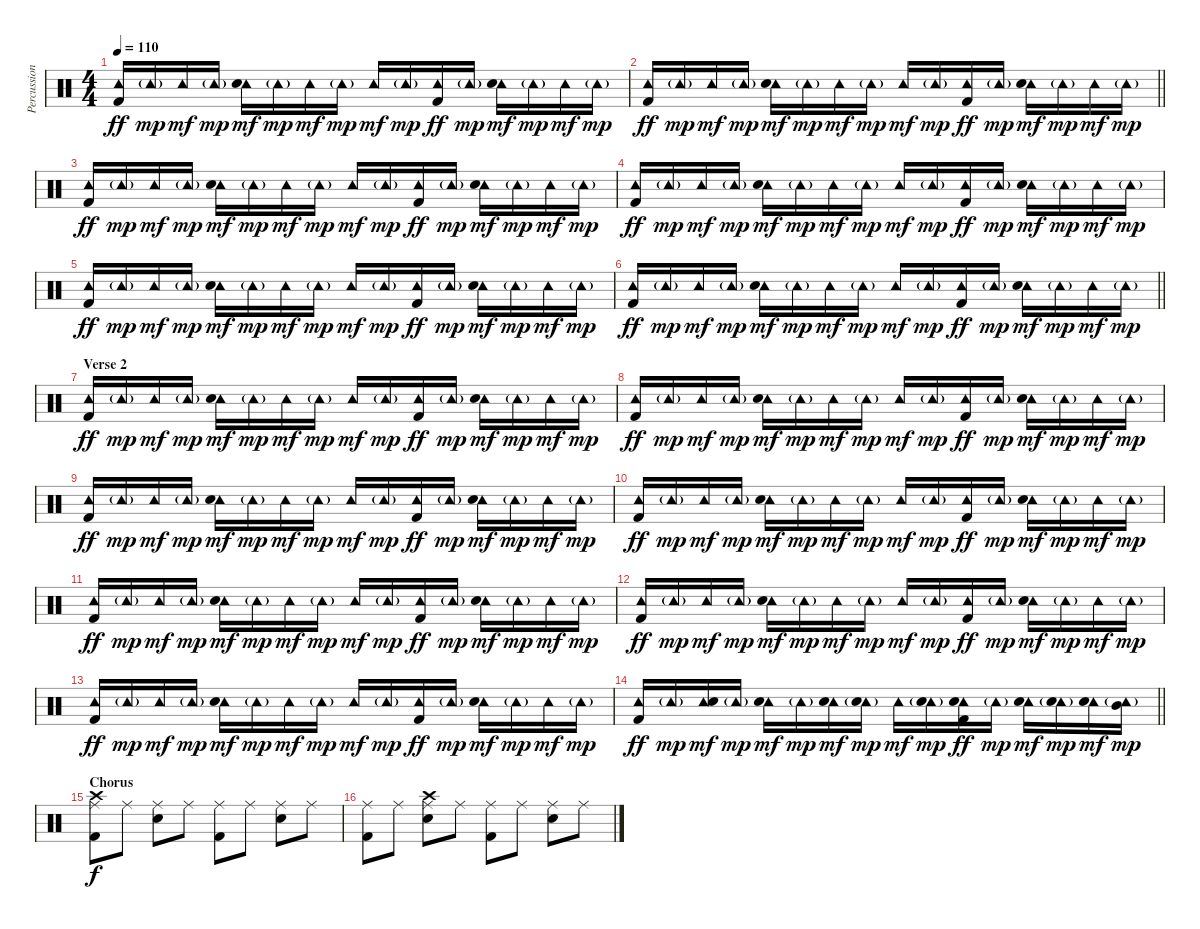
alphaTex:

\track ("Percussion" "Percussion") {instrument percussion}
\staff {score}
\articulation defaults
\ts (4 4)
\tempo 110
\clef neutral
\ks c
("Tambourine (hit)" "Kick (hit) 2").16{dy ff} "Tambourine (hit)"{g}.16{dy mp} "Tambourine (hit)".16{dy mf} "Tambourine (hit)"{g}.16{dy mp} ("Tambourine (hit)" "Electric Snare (hit)").16{dy mf} "Tambourine (hit)"{g}.16{dy mp} "Tambourine (hit)".16{dy mf} "Tambourine (hit)"{g}.16{dy mp} "Tambourine (hit)".16{dy mf} "Tambourine (hit)"{g}.16{dy mp} ("Tambourine (hit)" "Kick (hit) 2").16{dy ff} "Tambourine (hit)"{g}.16{dy mp} ("Tambourine (hit)" "Electric Snare (hit)").16{dy mf} "Tambourine (hit)"{g}.16{dy mp} "Tambourine (hit)".16{dy mf} "Tambourine (hit)"{g}.16{dy mp} |
\barLineRight lightlight
("Tambourine (hit)" "Kick (hit) 2").16{dy ff} "Tambourine (hit)"{g}.16{dy mp} "Tambourine (hit)".16{dy mf} "Tambourine (hit)"{g}.16{dy mp} ("Tambourine (hit)" "Electric Snare (hit)").16{dy mf} "Tambourine (hit)"{g}.16{dy mp} "Tambourine (hit)".16{dy mf} "Tambourine (hit)"{g}.16{dy mp} "Tambourine (hit)".16{dy mf} "Tambourine (hit)"{g}.16{dy mp} ("Tambourine (hit)" "Kick (hit) 2").16{dy ff} "Tambourine (hit)"{g}.16{dy mp} ("Tambourine (hit)" "Electric Snare (hit)").16{dy mf} "Tambourine (hit)"{g}.16{dy mp} "Tambourine (hit)".16{dy mf} "Tambourine (hit)"{g}.16{dy mp} |
("Tambourine (hit)" "Kick (hit) 2").16{dy ff} "Tambourine (hit)"{g}.16{dy mp} "Tambourine (hit)".16{dy mf} "Tambourine (hit)"{g}.16{dy mp} ("Tambourine (hit)" "Electric Snare (hit)").16{dy mf} "Tambourine (hit)"{g}.16{dy mp} "Tambourine (hit)".16{dy mf} "Tambourine (hit)"{g}.16{dy mp} "Tambourine (hit)".16{dy mf} "Tambourine (hit)"{g}.16{dy mp} ("Tambourine (hit)" "Kick (hit) 2").16{dy ff} "Tambourine (hit)"{g}.16{dy mp} ("Tambourine (hit)" "Electric Snare (hit)").16{dy mf} "Tambourine (hit)"{g}.16{dy mp} "Tambourine (hit)".16{dy mf} "Tambourine (hit)"{g}.16{dy mp} |
("Tambourine (hit)" "Kick (hit) 2").16{dy ff} "Tambourine (hit)"{g}.16{dy mp} "Tambourine (hit)".16{dy mf} "Tambourine (hit)"{g}.16{dy mp} ("Tambourine (hit)" "Electric Snare (hit)").16{dy mf} "Tambourine (hit)"{g}.16{dy mp} "Tambourine (hit)".16{dy mf} "Tambourine (hit)"{g}.16{dy mp} "Tambourine (hit)".16{dy mf} "Tambourine (hit)"{g}.16{dy mp} ("Tambourine (hit)" "Kick (hit) 2").16{dy ff} "Tambourine (hit)"{g}.16{dy mp} ("Tambourine (hit)" "Electric Snare (hit)").16{dy mf} "Tambourine (hit)"{g}.16{dy mp} "Tambourine (hit)".16{dy mf} "Tambourine (hit)"{g}.16{dy mp} |
("Tambourine (hit)" "Kick (hit) 2").16{dy ff} "Tambourine (hit)"{g}.16{dy mp} "Tambourine (hit)".16{dy mf} "Tambourine (hit)"{g}.16{dy mp} ("Tambourine (hit)" "Electric Snare (hit)").16{dy mf} "Tambourine (hit)"{g}.16{dy mp} "Tambourine (hit)".16{dy mf} "Tambourine (hit)"{g}.16{dy mp} "Tambourine (hit)".16{dy mf} "Tambourine (hit)"{g}.16{dy mp} ("Tambourine (hit)" "Kick (hit) 2").16{dy ff} "Tambourine (hit)"{g}.16{dy mp} ("Tambourine (hit)" "Electric Snare (hit)").16{dy mf} "Tambourine (hit)"{g}.16{dy mp} "Tambourine (hit)".16{dy mf} "Tambourine (hit)"{g}.16{dy mp} |
\barLineRight lightlight
("Tambourine (hit)" "Kick (hit) 2").16{dy ff} "Tambourine (hit)"{g}.16{dy mp} "Tambourine (hit)".16{dy mf} "Tambourine (hit)"{g}.16{dy mp} ("Tambourine (hit)" "Electric Snare (hit)").16{dy mf} "Tambourine (hit)"{g}.16{dy mp} "Tambourine (hit)".16{dy mf} "Tambourine (hit)"{g}.16{dy mp} "Tambourine (hit)".16{dy mf} "Tambourine (hit)"{g}.16{dy mp} ("Tambourine (hit)" "Kick (hit) 2").16{dy ff} "Tambourine (hit)"{g}.16{dy mp} ("Tambourine (hit)" "Electric Snare (hit)").16{dy mf} "Tambourine (hit)"{g}.16{dy mp} "Tambourine (hit)".16{dy mf} "Tambourine (hit)"{g}.16{dy mp} |
\section ("" "Verse 2")
("Tambourine (hit)" "Kick (hit) 2").16{dy ff} "Tambourine (hit)"{g}.16{dy mp} "Tambourine (hit)".16{dy mf} "Tambourine (hit)"{g}.16{dy mp} ("Tambourine (hit)" "Electric Snare (hit)").16{dy mf} "Tambourine (hit)"{g}.16{dy mp} "Tambourine (hit)".16{dy mf} "Tambourine (hit)"{g}.16{dy mp} "Tambourine (hit)".16{dy mf} "Tambourine (hit)"{g}.16{dy mp} ("Tambourine (hit)" "Kick (hit) 2").16{dy ff} "Tambourine (hit)"{g}.16{dy mp} ("Tambourine (hit)" "Electric Snare (hit)").16{dy mf} "Tambourine (hit)"{g}.16{dy mp} "Tambourine (hit)".16{dy mf} "Tambourine (hit)"{g}.16{dy mp} |
("Tambourine (hit)" "Kick (hit) 2").16{dy ff} "Tambourine (hit)"{g}.16{dy mp} "Tambourine (hit)".16{dy mf} "Tambourine (hit)"{g}.16{dy mp} ("Tambourine (hit)" "Electric Snare (hit)").16{dy mf} "Tambourine (hit)"{g}.16{dy mp} "Tambourine (hit)".16{dy mf} "Tambourine (hit)"{g}.16{dy mp} "Tambourine (hit)".16{dy mf} "Tambourine (hit)"{g}.16{dy mp} ("Tambourine (hit)" "Kick (hit) 2").16{dy ff} "Tambourine (hit)"{g}.16{dy mp} ("Tambourine (hit)" "Electric Snare (hit)").16{dy mf} "Tambourine (hit)"{g}.16{dy mp} "Tambourine (hit)".16{dy mf} "Tambourine (hit)"{g}.16{dy mp} |
("Tambourine (hit)" "Kick (hit) 2").16{dy ff} "Tambourine (hit)"{g}.16{dy mp} "Tambourine (hit)".16{dy mf} "Tambourine (hit)"{g}.16{dy mp} ("Tambourine (hit)" "Electric Snare (hit)").16{dy mf} "Tambourine (hit)"{g}.16{dy mp} "Tambourine (hit)".16{dy mf} "Tambourine (hit)"{g}.16{dy mp} "Tambourine (hit)".16{dy mf} "Tambourine (hit)"{g}.16{dy mp} ("Tambourine (hit)" "Kick (hit) 2").16{dy ff} "Tambourine (hit)"{g}.16{dy mp} ("Tambourine (hit)" "Electric Snare (hit)").16{dy mf} "Tambourine (hit)"{g}.16{dy mp} "Tambourine (hit)".16{dy mf} "Tambourine (hit)"{g}.16{dy mp} |
("Tambourine (hit)" "Kick (hit) 2").16{dy ff} "Tambourine (hit)"{g}.16{dy mp} "Tambourine (hit)".16{dy mf} "Tambourine (hit)"{g}.16{dy mp} ("Tambourine (hit)" "Electric Snare (hit)").16{dy mf} "Tambourine (hit)"{g}.16{dy mp} "Tambourine (hit)".16{dy mf} "Tambourine (hit)"{g}.16{dy mp} "Tambourine (hit)".16{dy mf} "Tambourine (hit)"{g}.16{dy mp} ("Tambourine (hit)" "Kick (hit) 2").16{dy ff} "Tambourine (hit)"{g}.16{dy mp} ("Tambourine (hit)" "Electric Snare (hit)").16{dy mf} "Tambourine (hit)"{g}.16{dy mp} "Tambourine (hit)".16{dy mf} "Tambourine (hit)"{g}.16{dy mp} |
("Tambourine (hit)" "Kick (hit) 2").16{dy ff} "Tambourine (hit)"{g}.16{dy mp} "Tambourine (hit)".16{dy mf} "Tambourine (hit)"{g}.16{dy mp} ("Tambourine (hit)" "Electric Snare (hit)").16{dy mf} "Tambourine (hit)"{g}.16{dy mp} "Tambourine (hit)".16{dy mf} "Tambourine (hit)"{g}.16{dy mp} "Tambourine (hit)".16{dy mf} "Tambourine (hit)"{g}.16{dy mp} ("Tambourine (hit)" "Kick (hit) 2").16{dy ff} "Tambourine (hit)"{g}.16{dy mp} ("Tambourine (hit)" "Electric Snare (hit)").16{dy mf} "Tambourine (hit)"{g}.16{dy mp} "Tambourine (hit)".16{dy mf} "Tambourine (hit)"{g}.16{dy mp} |
("Tambourine (hit)" "Kick (hit) 2").16{dy ff} "Tambourine (hit)"{g}.16{dy mp} "Tambourine (hit)".16{dy mf} "Tambourine (hit)"{g}.16{dy mp} ("Tambourine (hit)" "Electric Snare (hit)").16{dy mf} "Tambourine (hit)"{g}.16{dy mp} "Tambourine (hit)".16{dy mf} "Tambourine (hit)"{g}.16{dy mp} "Tambourine (hit)".16{dy mf} "Tambourine (hit)"{g}.16{dy mp} ("Tambourine (hit)" "Kick (hit) 2").16{dy ff} "Tambourine (hit)"{g}.16{dy mp} ("Tambourine (hit)" "Electric Snare (hit)").16{dy mf} "Tambourine (hit)"{g}.16{dy mp} "Tambourine (hit)".16{dy mf} "Tambourine (hit)"{g}.16{dy mp} |
("Tambourine (hit)" "Kick (hit) 2").16{dy ff} "Tambourine (hit)"{g}.16{dy mp} "Tambourine (hit)".16{dy mf} "Tambourine (hit)"{g}.16{dy mp} ("Tambourine (hit)" "Electric Snare (hit)").16{dy mf} "Tambourine (hit)"{g}.16{dy mp} "Tambourine (hit)".16{dy mf} "Tambourine (hit)"{g}.16{dy mp} "Tambourine (hit)".16{dy mf} "Tambourine (hit)"{g}.16{dy mp} ("Tambourine (hit)" "Kick (hit) 2").16{dy ff} "Tambourine (hit)"{g}.16{dy mp} ("Tambourine (hit)" "Electric Snare (hit)").16{dy mf} "Tambourine (hit)"{g}.16{dy mp} "Tambourine (hit)".16{dy mf} "Tambourine (hit)"{g}.16{dy mp} |
\barLineRight lightlight
("Tambourine (hit)" "Kick (hit) 2").16{dy ff} "Tambourine (hit)"{g}.16{dy mp} ("Tambourine (hit)" "Electric Snare (hit)").16{dy mf} "Tambourine (hit)"{g}.16{dy mp} ("Tambourine (hit)" "Electric Snare (hit)").16{dy mf} "Tambourine (hit)"{g}.16{dy mp} ("Tambourine (hit)" "Electric Snare (hit)").16{dy mf} ("Tambourine (hit)"{g} "Electric Snare (hit)").16{dy mp} "Tambourine (hit)".16{dy mf} ("Tambourine (hit)"{g} "Electric Snare (hit)").16{dy mp} ("Tambourine (hit)" "Electric Snare (hit)" "Kick (hit) 2").16{dy ff} "Tambourine (hit)"{g}.16{dy mp} ("Tambourine (hit)" "Electric Snare (hit)").16{dy mf} ("Tambourine (hit)"{g} "Electric Snare (hit)").16{dy mp} ("Tambourine (hit)" "Electric Snare (hit)").16{dy mf} ("Tambourine (hit)"{g} "Mid Tom (hit)").16{dy mp} |
\section ("" "Chorus")
("Crash high (hit)" "Ride (middle)" "Kick (hit) 2").8{dy f} "Ride (middle)".8 ("Ride (middle)" "Electric Snare (hit)").8 "Ride (middle)".8 ("Ride (middle)" "Kick (hit) 2").8 "Ride (middle)".8 ("Ride (middle)" "Electric Snare (hit)").8 "Ride (middle)".8 |
("Ride (middle)" "Kick (hit) 2").8 "Ride (middle)".8 ("Crash high (hit)" "Ride (middle)" "Electric Snare (hit)").8 "Ride (middle)".8 ("Ride (middle)" "Kick (hit) 2").8 "Ride (middle)".8 ("Ride (middle)" "Electric Snare (hit)").8 "Ride (middle)".8
